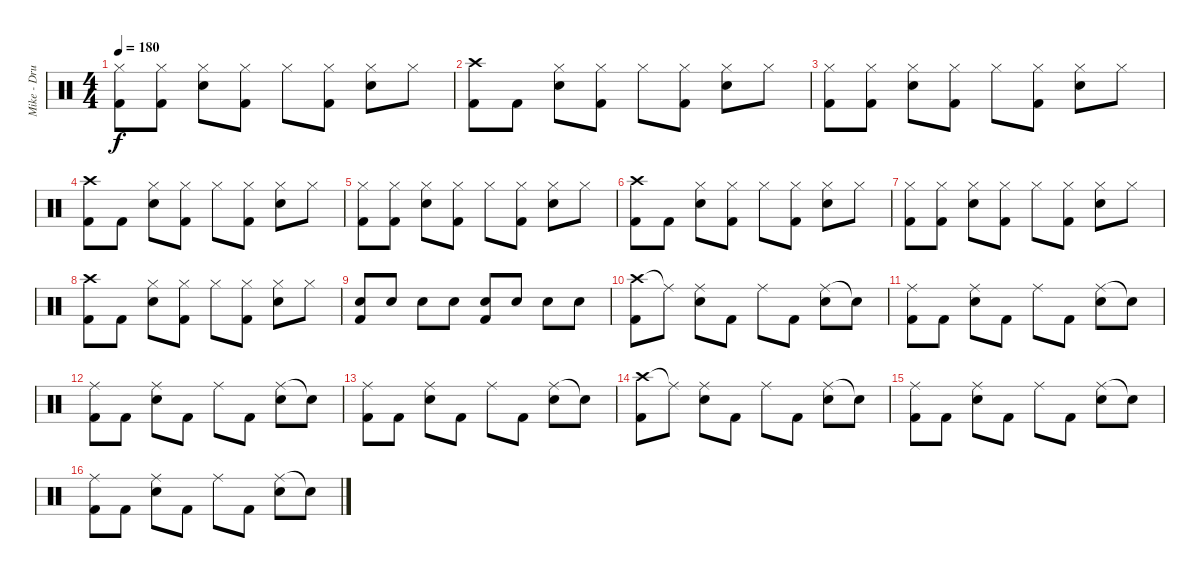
\track ("Mike - Drums" "Mike - Dru") {instrument percussion}
\staff {score}
\articulation defaults
\ts (4 4)
\tempo 180
\clef neutral
\ks c
("Hi-Hat (closed)" "Kick (hit) 2").8{dy f} ("Hi-Hat (closed)" "Kick (hit) 2").8 ("Hi-Hat (closed)" "Snare (hit) 2").8 ("Hi-Hat (closed)" "Kick (hit) 2").8 "Hi-Hat (closed)".8 ("Hi-Hat (closed)" "Kick (hit) 2").8 ("Hi-Hat (closed)" "Snare (hit) 2").8 "Hi-Hat (closed)".8 |
("Crash high (hit)" "Kick (hit) 2").8 "Kick (hit) 2".8 ("Hi-Hat (closed)" "Snare (hit) 2").8 ("Hi-Hat (closed)" "Kick (hit) 2").8 "Hi-Hat (closed)".8 ("Hi-Hat (closed)" "Kick (hit) 2").8 ("Hi-Hat (closed)" "Snare (hit) 2").8 "Hi-Hat (closed)".8 |
("Hi-Hat (closed)" "Kick (hit) 2").8 ("Hi-Hat (closed)" "Kick (hit) 2").8 ("Hi-Hat (closed)" "Snare (hit) 2").8 ("Hi-Hat (closed)" "Kick (hit) 2").8 "Hi-Hat (closed)".8 ("Hi-Hat (closed)" "Kick (hit) 2").8 ("Hi-Hat (closed)" "Snare (hit) 2").8 "Hi-Hat (closed)".8 |
("Crash high (hit)" "Kick (hit) 2").8 "Kick (hit) 2".8 ("Hi-Hat (closed)" "Snare (hit) 2").8 ("Hi-Hat (closed)" "Kick (hit) 2").8 "Hi-Hat (closed)".8 ("Hi-Hat (closed)" "Kick (hit) 2").8 ("Hi-Hat (closed)" "Snare (hit) 2").8 "Hi-Hat (closed)".8 |
("Hi-Hat (closed)" "Kick (hit) 2").8 ("Hi-Hat (closed)" "Kick (hit) 2").8 ("Hi-Hat (closed)" "Snare (hit) 2").8 ("Hi-Hat (closed)" "Kick (hit) 2").8 "Hi-Hat (closed)".8 ("Hi-Hat (closed)" "Kick (hit) 2").8 ("Hi-Hat (closed)" "Snare (hit) 2").8 "Hi-Hat (closed)".8 |
("Crash high (hit)" "Kick (hit) 2").8 "Kick (hit) 2".8 ("Hi-Hat (closed)" "Snare (hit) 2").8 ("Hi-Hat (closed)" "Kick (hit) 2").8 "Hi-Hat (closed)".8 ("Hi-Hat (closed)" "Kick (hit) 2").8 ("Hi-Hat (closed)" "Snare (hit) 2").8 "Hi-Hat (closed)".8 |
("Hi-Hat (closed)" "Kick (hit) 2").8 ("Hi-Hat (closed)" "Kick (hit) 2").8 ("Hi-Hat (closed)" "Snare (hit) 2").8 ("Hi-Hat (closed)" "Kick (hit) 2").8 "Hi-Hat (closed)".8 ("Hi-Hat (closed)" "Kick (hit) 2").8 ("Hi-Hat (closed)" "Snare (hit) 2").8 "Hi-Hat (closed)".8 |
("Crash high (hit)" "Kick (hit) 2").8 "Kick (hit) 2".8 ("Hi-Hat (closed)" "Snare (hit) 2").8 ("Hi-Hat (closed)" "Kick (hit) 2").8 "Hi-Hat (closed)".8 ("Hi-Hat (closed)" "Kick (hit) 2").8 ("Hi-Hat (closed)" "Snare (hit) 2").8 "Hi-Hat (closed)".8 |
("Snare (hit) 2" "Kick (hit) 2").8 "Snare (hit) 2".8 "Snare (hit) 2".8 "Snare (hit) 2".8 ("Snare (hit) 2" "Kick (hit) 2").8 "Snare (hit) 2".8 "Snare (hit) 2".8 "Snare (hit) 2".8 |
("Crash high (hit)" "Kick (hit) 2").8 "Ride (middle)"{t}.8 ("Ride (middle)" "Snare (hit) 2").8 "Kick (hit) 2".8 "Ride (middle)".8 "Kick (hit) 2".8 ("Ride (middle)" "Snare (hit) 2").8 "Snare (hit)"{t}.8 |
("Ride (middle)" "Kick (hit) 2").8 "Kick (hit) 2".8 ("Ride (middle)" "Snare (hit) 2").8 "Kick (hit) 2".8 "Ride (middle)".8 "Kick (hit) 2".8 ("Ride (middle)" "Snare (hit) 2").8 "Snare (hit)"{t}.8 |
("Ride (middle)" "Kick (hit) 2").8 "Kick (hit) 2".8 ("Ride (middle)" "Snare (hit) 2").8 "Kick (hit) 2".8 "Ride (middle)".8 "Kick (hit) 2".8 ("Ride (middle)" "Snare (hit) 2").8 "Snare (hit)"{t}.8 |
("Ride (middle)" "Kick (hit) 2").8 "Kick (hit) 2".8 ("Ride (middle)" "Snare (hit) 2").8 "Kick (hit) 2".8 "Ride (middle)".8 "Kick (hit) 2".8 ("Ride (middle)" "Snare (hit) 2").8 "Snare (hit)"{t}.8 |
("Crash high (hit)" "Kick (hit) 2").8 "Ride (middle)"{t}.8 ("Ride (middle)" "Snare (hit) 2").8 "Kick (hit) 2".8 "Ride (middle)".8 "Kick (hit) 2".8 ("Ride (middle)" "Snare (hit) 2").8 "Snare (hit)"{t}.8 |
("Ride (middle)" "Kick (hit) 2").8 "Kick (hit) 2".8 ("Ride (middle)" "Snare (hit) 2").8 "Kick (hit) 2".8 "Ride (middle)".8 "Kick (hit) 2".8 ("Ride (middle)" "Snare (hit) 2").8 "Snare (hit)"{t}.8 |
("Ride (middle)" "Kick (hit) 2").8 "Kick (hit) 2".8 ("Ride (middle)" "Snare (hit) 2").8 "Kick (hit) 2".8 "Ride (middle)".8 "Kick (hit) 2".8 ("Ride (middle)" "Snare (hit) 2").8 "Snare (hit)"{t}.8
